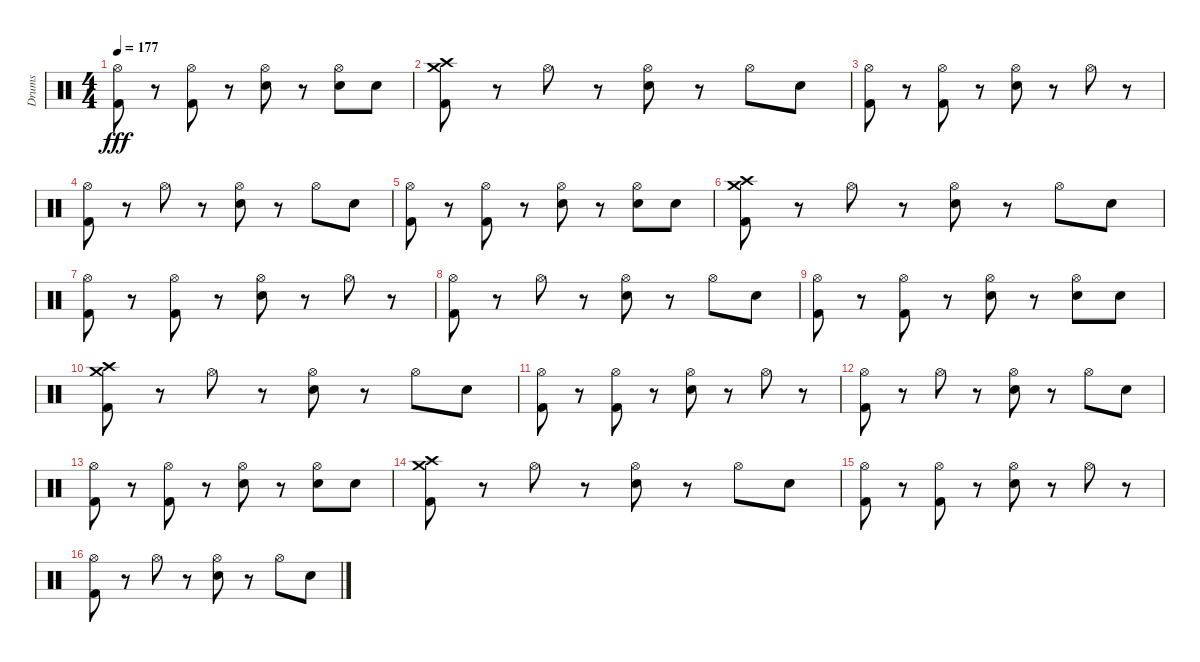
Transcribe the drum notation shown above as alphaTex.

\track ("Drums" "Drums") {instrument percussion}
\staff {score}
\articulation defaults
\ts (4 4)
\tempo 177
\clef neutral
\ks c
("Hi-Hat (open)" "Kick (hit) 2").8{dy fff} r.8 ("Hi-Hat (open)" "Kick (hit) 2").8 r.8 ("Hi-Hat (open)" "Snare (hit) 2").8 r.8 ("Hi-Hat (open)" "Snare (hit) 2").8 "Snare (hit) 2".8 |
("Crash high (hit)" "Crash medium (hit)" "Kick (hit) 2").8 r.8 "Hi-Hat (open)".8 r.8 ("Hi-Hat (open)" "Snare (hit) 2").8 r.8 "Hi-Hat (open)".8 "Snare (hit) 2".8 |
("Hi-Hat (open)" "Kick (hit) 2").8 r.8 ("Hi-Hat (open)" "Kick (hit) 2").8 r.8 ("Hi-Hat (open)" "Snare (hit) 2").8 r.8 "Hi-Hat (open)".8 r.8 |
("Hi-Hat (open)" "Kick (hit) 2").8 r.8 "Hi-Hat (open)".8 r.8 ("Hi-Hat (open)" "Snare (hit) 2").8 r.8 "Hi-Hat (open)".8 "Snare (hit) 2".8 |
("Hi-Hat (open)" "Kick (hit) 2").8 r.8 ("Hi-Hat (open)" "Kick (hit) 2").8 r.8 ("Hi-Hat (open)" "Snare (hit) 2").8 r.8 ("Hi-Hat (open)" "Snare (hit) 2").8 "Snare (hit) 2".8 |
("Crash high (hit)" "Crash medium (hit)" "Kick (hit) 2").8 r.8 "Hi-Hat (open)".8 r.8 ("Hi-Hat (open)" "Snare (hit) 2").8 r.8 "Hi-Hat (open)".8 "Snare (hit) 2".8 |
("Hi-Hat (open)" "Kick (hit) 2").8 r.8 ("Hi-Hat (open)" "Kick (hit) 2").8 r.8 ("Hi-Hat (open)" "Snare (hit) 2").8 r.8 "Hi-Hat (open)".8 r.8 |
("Hi-Hat (open)" "Kick (hit) 2").8 r.8 "Hi-Hat (open)".8 r.8 ("Hi-Hat (open)" "Snare (hit) 2").8 r.8 "Hi-Hat (open)".8 "Snare (hit) 2".8 |
("Hi-Hat (open)" "Kick (hit) 2").8 r.8 ("Hi-Hat (open)" "Kick (hit) 2").8 r.8 ("Hi-Hat (open)" "Snare (hit) 2").8 r.8 ("Hi-Hat (open)" "Snare (hit) 2").8 "Snare (hit) 2".8 |
("Crash high (hit)" "Crash medium (hit)" "Kick (hit) 2").8 r.8 "Hi-Hat (open)".8 r.8 ("Hi-Hat (open)" "Snare (hit) 2").8 r.8 "Hi-Hat (open)".8 "Snare (hit) 2".8 |
("Hi-Hat (open)" "Kick (hit) 2").8 r.8 ("Hi-Hat (open)" "Kick (hit) 2").8 r.8 ("Hi-Hat (open)" "Snare (hit) 2").8 r.8 "Hi-Hat (open)".8 r.8 |
("Hi-Hat (open)" "Kick (hit) 2").8 r.8 "Hi-Hat (open)".8 r.8 ("Hi-Hat (open)" "Snare (hit) 2").8 r.8 "Hi-Hat (open)".8 "Snare (hit) 2".8 |
("Hi-Hat (open)" "Kick (hit) 2").8 r.8 ("Hi-Hat (open)" "Kick (hit) 2").8 r.8 ("Hi-Hat (open)" "Snare (hit) 2").8 r.8 ("Hi-Hat (open)" "Snare (hit) 2").8 "Snare (hit) 2".8 |
("Crash high (hit)" "Crash medium (hit)" "Kick (hit) 2").8 r.8 "Hi-Hat (open)".8 r.8 ("Hi-Hat (open)" "Snare (hit) 2").8 r.8 "Hi-Hat (open)".8 "Snare (hit) 2".8 |
("Hi-Hat (open)" "Kick (hit) 2").8 r.8 ("Hi-Hat (open)" "Kick (hit) 2").8 r.8 ("Hi-Hat (open)" "Snare (hit) 2").8 r.8 "Hi-Hat (open)".8 r.8 |
("Hi-Hat (open)" "Kick (hit) 2").8 r.8 "Hi-Hat (open)".8 r.8 ("Hi-Hat (open)" "Snare (hit) 2").8 r.8 "Hi-Hat (open)".8 "Snare (hit) 2".8
